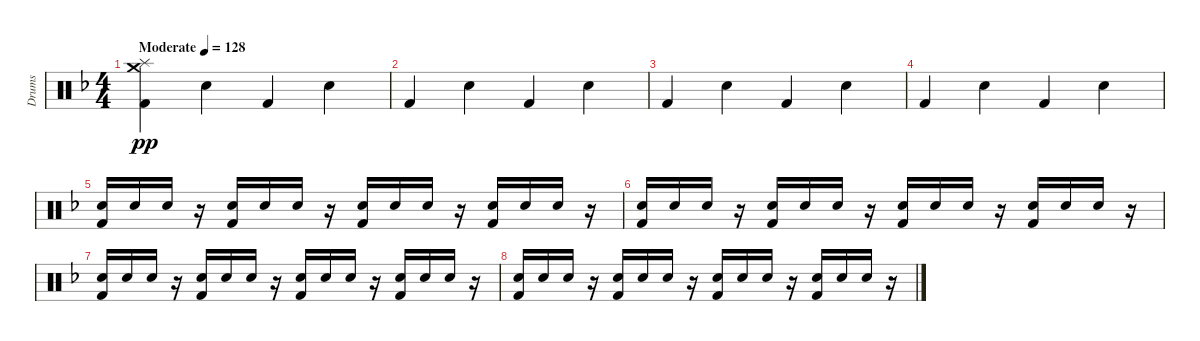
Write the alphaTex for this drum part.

\track ("Drums" "Drums") {instrument percussion}
\staff {score}
\articulation defaults
\ts (4 4)
\tempo (128 "Moderate")
\clef neutral
\ks dminor
("Kick (hit) 2" "Splash (hit)" "Crash medium (hit)").4{dy pp} "Electric Snare (hit)".4 "Kick (hit) 2".4 "Electric Snare (hit)".4 |
"Kick (hit) 2".4 "Electric Snare (hit)".4 "Kick (hit) 2".4 "Electric Snare (hit)".4 |
"Kick (hit) 2".4 "Electric Snare (hit)".4 "Kick (hit) 2".4 "Electric Snare (hit)".4 |
"Kick (hit) 2".4 "Electric Snare (hit)".4 "Kick (hit) 2".4 "Electric Snare (hit)".4 |
("Electric Snare (hit)" "Kick (hit) 2").16 "Electric Snare (hit)".16 "Electric Snare (hit)".16 r.16 ("Electric Snare (hit)" "Kick (hit) 2").16 "Electric Snare (hit)".16 "Electric Snare (hit)".16 r.16 ("Electric Snare (hit)" "Kick (hit) 2").16 "Electric Snare (hit)".16 "Electric Snare (hit)".16 r.16 ("Electric Snare (hit)" "Kick (hit) 2").16 "Electric Snare (hit)".16 "Electric Snare (hit)".16 r.16 |
("Electric Snare (hit)" "Kick (hit) 2").16 "Electric Snare (hit)".16 "Electric Snare (hit)".16 r.16 ("Electric Snare (hit)" "Kick (hit) 2").16 "Electric Snare (hit)".16 "Electric Snare (hit)".16 r.16 ("Electric Snare (hit)" "Kick (hit) 2").16 "Electric Snare (hit)".16 "Electric Snare (hit)".16 r.16 ("Electric Snare (hit)" "Kick (hit) 2").16 "Electric Snare (hit)".16 "Electric Snare (hit)".16 r.16 |
("Electric Snare (hit)" "Kick (hit) 2").16 "Electric Snare (hit)".16 "Electric Snare (hit)".16 r.16 ("Electric Snare (hit)" "Kick (hit) 2").16 "Electric Snare (hit)".16 "Electric Snare (hit)".16 r.16 ("Electric Snare (hit)" "Kick (hit) 2").16 "Electric Snare (hit)".16 "Electric Snare (hit)".16 r.16 ("Electric Snare (hit)" "Kick (hit) 2").16 "Electric Snare (hit)".16 "Electric Snare (hit)".16 r.16 |
("Electric Snare (hit)" "Kick (hit) 2").16 "Electric Snare (hit)".16 "Electric Snare (hit)".16 r.16 ("Electric Snare (hit)" "Kick (hit) 2").16 "Electric Snare (hit)".16 "Electric Snare (hit)".16 r.16 ("Electric Snare (hit)" "Kick (hit) 2").16 "Electric Snare (hit)".16 "Electric Snare (hit)".16 r.16 ("Electric Snare (hit)" "Kick (hit) 2").16 "Electric Snare (hit)".16 "Electric Snare (hit)".16 r.16
